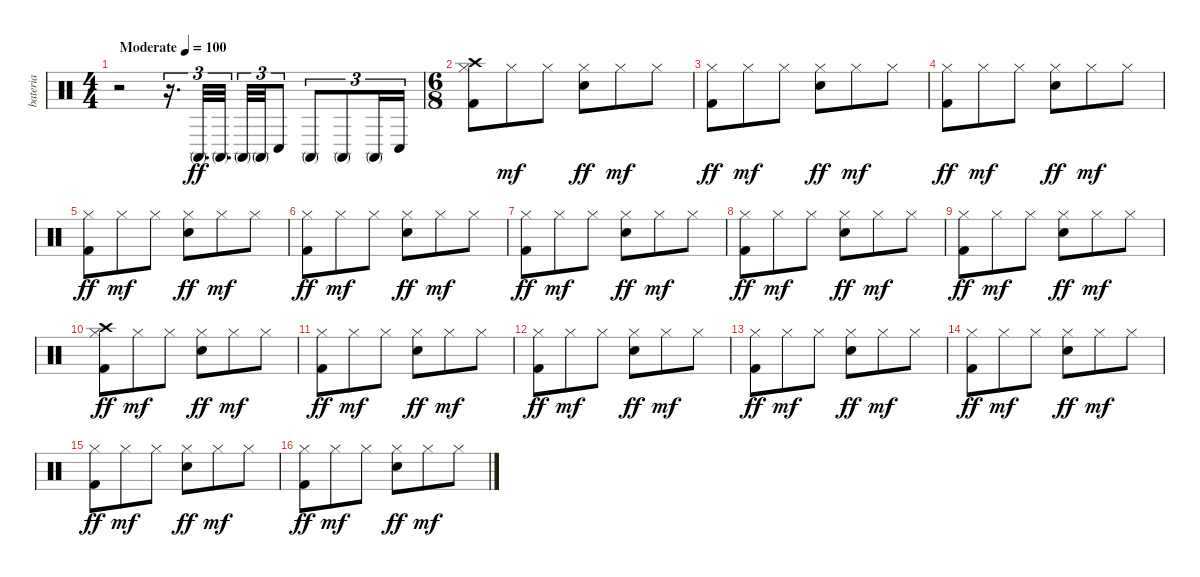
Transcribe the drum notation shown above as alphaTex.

\track ("bateria" "bateria") {instrument percussion}
\staff {score}
\articulation defaults
\ts (4 4)
\tempo (100 "Moderate")
\clef neutral
\ks c
r.2{dy ff} r.16{d tu (3 2)} "Conga high (mute)".32{d tu (3 2)} "Conga high (mute)".32{d tu (3 2)} "Conga high (mute)".32{tu (3 2)} "Conga high (mute)".32{tu (3 2)} "Conga low (hit)".8{tu (3 2)} "Conga high (mute)".8{tu (3 2)} "Conga high (mute)".8{tu (3 2)} "Conga high (mute)".16{tu (3 2)} "Conga low (hit)".16{tu (3 2)} |
\ts (6 8)
("Crash high (hit)" "Hi-Hat (closed)" "Kick (hit) 2").8 "Hi-Hat (closed)".8{dy mf} "Hi-Hat (closed)".8 ("Hi-Hat (closed)" "Snare (hit) 2").8{dy ff} "Hi-Hat (closed)".8{dy mf} "Hi-Hat (closed)".8 |
("Hi-Hat (closed)" "Kick (hit) 2").8{dy ff} "Hi-Hat (closed)".8{dy mf} "Hi-Hat (closed)".8 ("Hi-Hat (closed)" "Snare (hit) 2").8{dy ff} "Hi-Hat (closed)".8{dy mf} "Hi-Hat (closed)".8 |
("Hi-Hat (closed)" "Kick (hit) 2").8{dy ff} "Hi-Hat (closed)".8{dy mf} "Hi-Hat (closed)".8 ("Hi-Hat (closed)" "Snare (hit) 2").8{dy ff} "Hi-Hat (closed)".8{dy mf} "Hi-Hat (closed)".8 |
("Hi-Hat (closed)" "Kick (hit) 2").8{dy ff} "Hi-Hat (closed)".8{dy mf} "Hi-Hat (closed)".8 ("Hi-Hat (closed)" "Snare (hit) 2").8{dy ff} "Hi-Hat (closed)".8{dy mf} "Hi-Hat (closed)".8 |
("Hi-Hat (closed)" "Kick (hit) 2").8{dy ff} "Hi-Hat (closed)".8{dy mf} "Hi-Hat (closed)".8 ("Hi-Hat (closed)" "Snare (hit) 2").8{dy ff} "Hi-Hat (closed)".8{dy mf} "Hi-Hat (closed)".8 |
("Hi-Hat (closed)" "Kick (hit) 2").8{dy ff} "Hi-Hat (closed)".8{dy mf} "Hi-Hat (closed)".8 ("Hi-Hat (closed)" "Snare (hit) 2").8{dy ff} "Hi-Hat (closed)".8{dy mf} "Hi-Hat (closed)".8 |
("Hi-Hat (closed)" "Kick (hit) 2").8{dy ff} "Hi-Hat (closed)".8{dy mf} "Hi-Hat (closed)".8 ("Hi-Hat (closed)" "Snare (hit) 2").8{dy ff} "Hi-Hat (closed)".8{dy mf} "Hi-Hat (closed)".8 |
("Hi-Hat (closed)" "Kick (hit) 2").8{dy ff} "Hi-Hat (closed)".8{dy mf} "Hi-Hat (closed)".8 ("Hi-Hat (closed)" "Snare (hit) 2").8{dy ff} "Hi-Hat (closed)".8{dy mf} "Hi-Hat (closed)".8 |
("Crash high (hit)" "Hi-Hat (closed)" "Kick (hit) 2").8{dy ff} "Hi-Hat (closed)".8{dy mf} "Hi-Hat (closed)".8 ("Hi-Hat (closed)" "Snare (hit) 2").8{dy ff} "Hi-Hat (closed)".8{dy mf} "Hi-Hat (closed)".8 |
("Hi-Hat (closed)" "Kick (hit) 2").8{dy ff} "Hi-Hat (closed)".8{dy mf} "Hi-Hat (closed)".8 ("Hi-Hat (closed)" "Snare (hit) 2").8{dy ff} "Hi-Hat (closed)".8{dy mf} "Hi-Hat (closed)".8 |
("Hi-Hat (closed)" "Kick (hit) 2").8{dy ff} "Hi-Hat (closed)".8{dy mf} "Hi-Hat (closed)".8 ("Hi-Hat (closed)" "Snare (hit) 2").8{dy ff} "Hi-Hat (closed)".8{dy mf} "Hi-Hat (closed)".8 |
("Hi-Hat (closed)" "Kick (hit) 2").8{dy ff} "Hi-Hat (closed)".8{dy mf} "Hi-Hat (closed)".8 ("Hi-Hat (closed)" "Snare (hit) 2").8{dy ff} "Hi-Hat (closed)".8{dy mf} "Hi-Hat (closed)".8 |
("Hi-Hat (closed)" "Kick (hit) 2").8{dy ff} "Hi-Hat (closed)".8{dy mf} "Hi-Hat (closed)".8 ("Hi-Hat (closed)" "Snare (hit) 2").8{dy ff} "Hi-Hat (closed)".8{dy mf} "Hi-Hat (closed)".8 |
("Hi-Hat (closed)" "Kick (hit) 2").8{dy ff} "Hi-Hat (closed)".8{dy mf} "Hi-Hat (closed)".8 ("Hi-Hat (closed)" "Snare (hit) 2").8{dy ff} "Hi-Hat (closed)".8{dy mf} "Hi-Hat (closed)".8 |
("Hi-Hat (closed)" "Kick (hit) 2").8{dy ff} "Hi-Hat (closed)".8{dy mf} "Hi-Hat (closed)".8 ("Hi-Hat (closed)" "Snare (hit) 2").8{dy ff} "Hi-Hat (closed)".8{dy mf} "Hi-Hat (closed)".8
